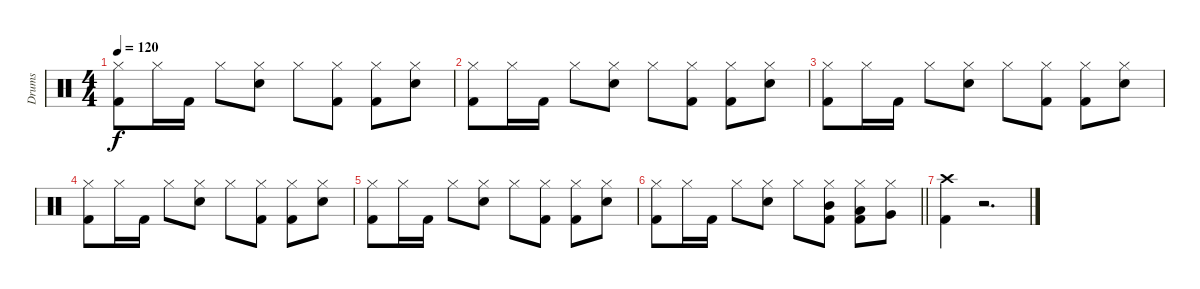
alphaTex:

\track ("Drums" "Drums") {instrument percussion}
\staff {score}
\articulation defaults
\ts (4 4)
\tempo 120
\clef neutral
\ks c
("Hi-Hat (closed)" "Kick (hit) 2").8{dy f} "Hi-Hat (closed)".16 "Kick (hit) 2".16 "Hi-Hat (closed)".8 ("Hi-Hat (closed)" "Snare (hit) 2").8 "Hi-Hat (closed)".8 ("Hi-Hat (closed)" "Kick (hit) 2").8 ("Hi-Hat (closed)" "Kick (hit) 2").8 ("Hi-Hat (closed)" "Snare (hit) 2").8 |
("Hi-Hat (closed)" "Kick (hit) 2").8 "Hi-Hat (closed)".16 "Kick (hit) 2".16 "Hi-Hat (closed)".8 ("Hi-Hat (closed)" "Snare (hit) 2").8 "Hi-Hat (closed)".8 ("Hi-Hat (closed)" "Kick (hit) 2").8 ("Hi-Hat (closed)" "Kick (hit) 2").8 ("Hi-Hat (closed)" "Snare (hit) 2").8 |
("Hi-Hat (closed)" "Kick (hit) 2").8 "Hi-Hat (closed)".16 "Kick (hit) 2".16 "Hi-Hat (closed)".8 ("Hi-Hat (closed)" "Snare (hit) 2").8 "Hi-Hat (closed)".8 ("Hi-Hat (closed)" "Kick (hit) 2").8 ("Hi-Hat (closed)" "Kick (hit) 2").8 ("Hi-Hat (closed)" "Snare (hit) 2").8 |
("Hi-Hat (closed)" "Kick (hit) 2").8 "Hi-Hat (closed)".16 "Kick (hit) 2".16 "Hi-Hat (closed)".8 ("Hi-Hat (closed)" "Snare (hit) 2").8 "Hi-Hat (closed)".8 ("Hi-Hat (closed)" "Kick (hit) 2").8 ("Hi-Hat (closed)" "Kick (hit) 2").8 ("Hi-Hat (closed)" "Snare (hit) 2").8 |
("Hi-Hat (closed)" "Kick (hit) 2").8 "Hi-Hat (closed)".16 "Kick (hit) 2".16 "Hi-Hat (closed)".8 ("Hi-Hat (closed)" "Snare (hit) 2").8 "Hi-Hat (closed)".8 ("Hi-Hat (closed)" "Kick (hit) 2").8 ("Hi-Hat (closed)" "Kick (hit) 2").8 ("Hi-Hat (closed)" "Snare (hit) 2").8 |
\barLineRight lightlight
("Hi-Hat (closed)" "Kick (hit) 2").8 "Hi-Hat (closed)".16 "Kick (hit) 2".16 "Hi-Hat (closed)".8 ("Hi-Hat (closed)" "Snare (hit) 2").8 "Hi-Hat (closed)".8 ("Hi-Hat (closed)" "Mid Tom (hit)" "Kick (hit) 2").8 ("Hi-Hat (closed)" "Low Tom (hit)" "Kick (hit) 2").8 ("Hi-Hat (closed)" "Very Low Tom (hit)").8 |
("Crash high (hit)" "Kick (hit) 2").4 r.2{d}
